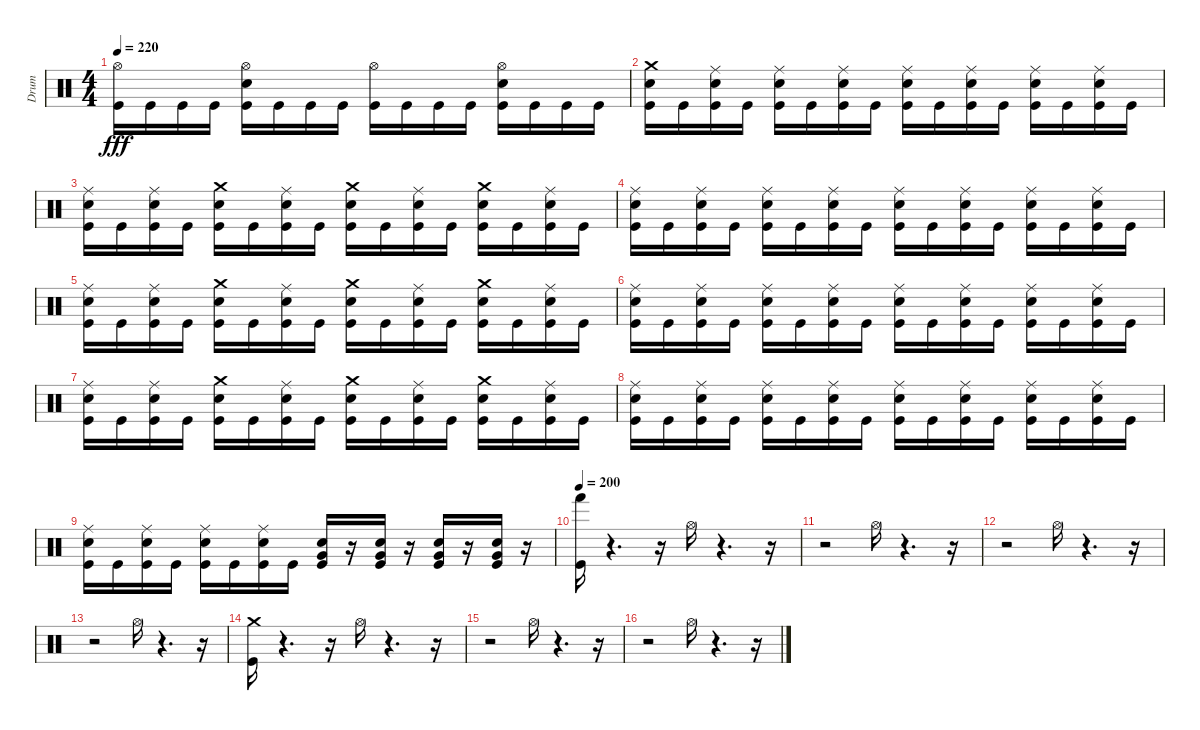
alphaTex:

\track ("Drum" "Drum") {instrument percussion}
\staff {score}
\articulation defaults
\ts (4 4)
\tempo 220
\clef neutral
\ks c
("Hi-Hat (open)" "Kick (hit)").16{dy fff} "Kick (hit)".16 "Kick (hit)".16 "Kick (hit)".16 ("Hi-Hat (open)" "Kick (hit)" "Snare (hit) 2").16 "Kick (hit)".16 "Kick (hit)".16 "Kick (hit)".16 ("Kick (hit)" "Hi-Hat (open)").16 "Kick (hit)".16 "Kick (hit)".16 "Kick (hit)".16 ("Kick (hit)" "Snare (hit) 2" "Hi-Hat (open)").16 "Kick (hit)".16 "Kick (hit)".16 "Kick (hit)".16 |
("Crash medium (hit)" "Kick (hit)" "Snare (hit) 2").16 "Kick (hit)".16 ("Snare (hit) 2" "Kick (hit)" "Ride (middle)").16 "Kick (hit)".16 ("Ride (middle)" "Kick (hit)" "Snare (hit) 2").16 "Kick (hit)".16 ("Kick (hit)" "Snare (hit) 2" "Ride (middle)").16 "Kick (hit)".16 ("Kick (hit)" "Snare (hit) 2" "Ride (middle)").16 "Kick (hit)".16 ("Kick (hit)" "Ride (middle)" "Snare (hit) 2").16 "Kick (hit)".16 ("Kick (hit)" "Snare (hit) 2" "Ride (middle)").16 "Kick (hit)".16 ("Kick (hit)" "Snare (hit) 2" "Ride (middle)").16 "Kick (hit)".16 |
("Ride (middle)" "Snare (hit) 2" "Kick (hit)").16 "Kick (hit)".16 ("Ride (middle)" "Snare (hit) 2" "Kick (hit)").16 "Kick (hit)".16 ("Crash medium (hit)" "Snare (hit) 2" "Kick (hit)").16 "Kick (hit)".16 ("Kick (hit)" "Snare (hit) 2" "Ride (middle)").16 "Kick (hit)".16 ("Snare (hit) 2" "Kick (hit)" "Crash medium (hit)").16 "Kick (hit)".16 ("Kick (hit)" "Ride (middle)" "Snare (hit) 2").16 "Kick (hit)".16 ("Snare (hit) 2" "Crash medium (hit)" "Kick (hit)").16 "Kick (hit)".16 ("Kick (hit)" "Snare (hit) 2" "Ride (middle)").16 "Kick (hit)".16 |
("Kick (hit)" "Snare (hit) 2" "Ride (middle)").16 "Kick (hit)".16 ("Snare (hit) 2" "Ride (middle)" "Kick (hit)").16 "Kick (hit)".16 ("Snare (hit) 2" "Kick (hit)" "Ride (middle)").16 "Kick (hit)".16 ("Kick (hit)" "Snare (hit) 2" "Ride (middle)").16 "Kick (hit)".16 ("Snare (hit) 2" "Kick (hit)" "Ride (middle)").16 "Kick (hit)".16 ("Ride (middle)" "Kick (hit)" "Snare (hit) 2").16 "Kick (hit)".16 ("Snare (hit) 2" "Ride (middle)" "Kick (hit)").16 "Kick (hit)".16 ("Snare (hit) 2" "Kick (hit)" "Ride (middle)").16 "Kick (hit)".16 |
("Snare (hit) 2" "Kick (hit)" "Ride (middle)").16 "Kick (hit)".16 ("Kick (hit)" "Ride (middle)" "Snare (hit) 2").16 "Kick (hit)".16 ("Kick (hit)" "Crash medium (hit)" "Snare (hit) 2").16 "Kick (hit)".16 ("Kick (hit)" "Ride (middle)" "Snare (hit) 2").16 "Kick (hit)".16 ("Kick (hit)" "Crash medium (hit)" "Snare (hit) 2").16 "Kick (hit)".16 ("Ride (middle)" "Kick (hit)" "Snare (hit) 2").16 "Kick (hit)".16 ("Crash medium (hit)" "Snare (hit) 2" "Kick (hit)").16 "Kick (hit)".16 ("Kick (hit)" "Snare (hit) 2" "Ride (middle)").16 "Kick (hit)".16 |
("Kick (hit)" "Ride (middle)" "Snare (hit) 2").16 "Kick (hit)".16 ("Ride (middle)" "Snare (hit) 2" "Kick (hit)").16 "Kick (hit)".16 ("Ride (middle)" "Snare (hit) 2" "Kick (hit)").16 "Kick (hit)".16 ("Kick (hit)" "Ride (middle)" "Snare (hit) 2").16 "Kick (hit)".16 ("Kick (hit)" "Ride (middle)" "Snare (hit) 2").16 "Kick (hit)".16 ("Snare (hit) 2" "Ride (middle)" "Kick (hit)").16 "Kick (hit)".16 ("Snare (hit) 2" "Kick (hit)" "Ride (middle)").16 "Kick (hit)".16 ("Snare (hit) 2" "Kick (hit)" "Ride (middle)").16 "Kick (hit)".16 |
("Kick (hit)" "Ride (middle)" "Snare (hit) 2").16 "Kick (hit)".16 ("Ride (middle)" "Kick (hit)" "Snare (hit) 2").16 "Kick (hit)".16 ("Kick (hit)" "Crash medium (hit)" "Snare (hit) 2").16 "Kick (hit)".16 ("Kick (hit)" "Snare (hit) 2" "Ride (middle)").16 "Kick (hit)".16 ("Kick (hit)" "Crash medium (hit)" "Snare (hit) 2").16 "Kick (hit)".16 ("Snare (hit) 2" "Ride (middle)" "Kick (hit)").16 "Kick (hit)".16 ("Kick (hit)" "Crash medium (hit)" "Snare (hit) 2").16 "Kick (hit)".16 ("Ride (middle)" "Snare (hit) 2" "Kick (hit)").16 "Kick (hit)".16 |
("Ride (middle)" "Snare (hit) 2" "Kick (hit)").16 "Kick (hit)".16 ("Kick (hit)" "Snare (hit) 2" "Ride (middle)").16 "Kick (hit)".16 ("Snare (hit) 2" "Kick (hit)" "Ride (middle)").16 "Kick (hit)".16 ("Kick (hit)" "Ride (middle)" "Snare (hit) 2").16 "Kick (hit)".16 ("Snare (hit) 2" "Ride (middle)" "Kick (hit)").16 "Kick (hit)".16 ("Snare (hit) 2" "Kick (hit)" "Ride (middle)").16 "Kick (hit)".16 ("Snare (hit) 2" "Kick (hit)" "Ride (middle)").16 "Kick (hit)".16 ("Ride (middle)" "Kick (hit)" "Snare (hit) 2").16 "Kick (hit)".16 |
("Ride (middle)" "Kick (hit)" "Snare (hit) 2").16 "Kick (hit)".16 ("Snare (hit) 2" "Ride (middle)" "Kick (hit)").16 "Kick (hit)".16 ("Kick (hit)" "Ride (middle)" "Snare (hit) 2").16 "Kick (hit)".16 ("Kick (hit)" "Ride (middle)" "Snare (hit) 2").16 "Kick (hit)".16 ("Snare (hit) 2" "Very Low Tom (hit)" "Kick (hit)").16 r.16 ("Kick (hit)" "Snare (hit) 2" "Very Low Tom (hit)").16 r.16 ("Very Low Tom (hit)" "Snare (hit) 2" "Kick (hit)").16 r.16 ("Very Low Tom (hit)" "Snare (hit) 2" "Kick (hit)").16 r.16 |
\tempo 200
("Kick (hit)" "Hand (hit)").16 r.4{d} r.16 "Hi-Hat (open)".16 r.4{d} r.16 |
r.2 "Hi-Hat (open)".16 r.4{d} r.16 |
r.2 "Hi-Hat (open)".16 r.4{d} r.16 |
r.2 "Hi-Hat (open)".16 r.4{d} r.16 |
("Kick (hit)" "Crash medium (hit)").16 r.4{d} r.16 "Hi-Hat (open)".16 r.4{d} r.16 |
r.2 "Hi-Hat (open)".16 r.4{d} r.16 |
r.2 "Hi-Hat (open)".16 r.4{d} r.16
